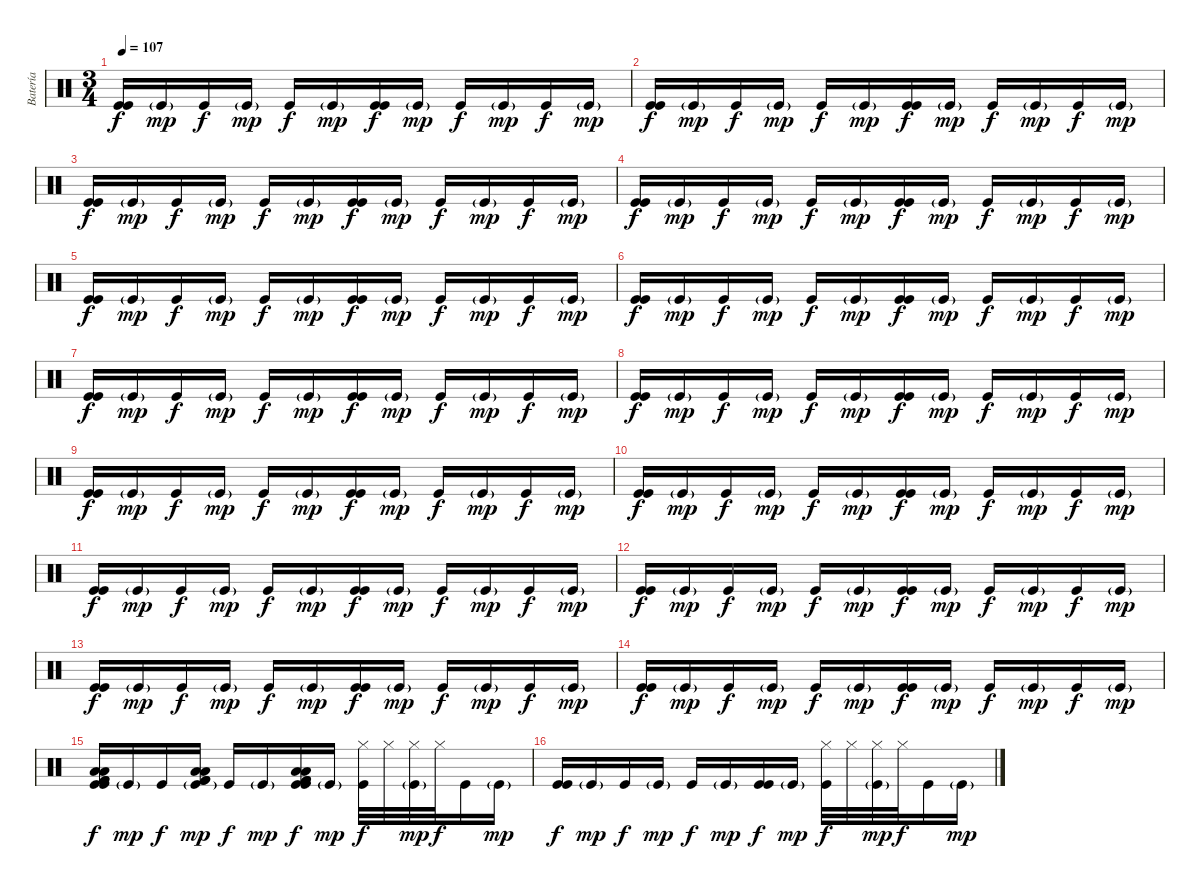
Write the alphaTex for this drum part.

\track ("Batería" "Batería") {instrument percussion}
\staff {score}
\articulation defaults
\ts (3 4)
\tempo 107
\clef neutral
\ks c
("Kick (hit)" "Kick (hit)").16{dy f} "Kick (hit)"{g}.16{dy mp} "Kick (hit)".16{dy f} "Kick (hit)"{g}.16{dy mp} "Kick (hit)".16{dy f} "Kick (hit)"{g}.16{dy mp} ("Kick (hit)" "Kick (hit)").16{dy f} "Kick (hit)"{g}.16{dy mp} "Kick (hit)".16{dy f} "Kick (hit)"{g}.16{dy mp} "Kick (hit)".16{dy f} "Kick (hit)"{g}.16{dy mp} |
("Kick (hit)" "Kick (hit)").16{dy f} "Kick (hit)"{g}.16{dy mp} "Kick (hit)".16{dy f} "Kick (hit)"{g}.16{dy mp} "Kick (hit)".16{dy f} "Kick (hit)"{g}.16{dy mp} ("Kick (hit)" "Kick (hit)").16{dy f} "Kick (hit)"{g}.16{dy mp} "Kick (hit)".16{dy f} "Kick (hit)"{g}.16{dy mp} "Kick (hit)".16{dy f} "Kick (hit)"{g}.16{dy mp} |
("Kick (hit)" "Kick (hit)").16{dy f} "Kick (hit)"{g}.16{dy mp} "Kick (hit)".16{dy f} "Kick (hit)"{g}.16{dy mp} "Kick (hit)".16{dy f} "Kick (hit)"{g}.16{dy mp} ("Kick (hit)" "Kick (hit)").16{dy f} "Kick (hit)"{g}.16{dy mp} "Kick (hit)".16{dy f} "Kick (hit)"{g}.16{dy mp} "Kick (hit)".16{dy f} "Kick (hit)"{g}.16{dy mp} |
("Kick (hit)" "Kick (hit)").16{dy f} "Kick (hit)"{g}.16{dy mp} "Kick (hit)".16{dy f} "Kick (hit)"{g}.16{dy mp} "Kick (hit)".16{dy f} "Kick (hit)"{g}.16{dy mp} ("Kick (hit)" "Kick (hit)").16{dy f} "Kick (hit)"{g}.16{dy mp} "Kick (hit)".16{dy f} "Kick (hit)"{g}.16{dy mp} "Kick (hit)".16{dy f} "Kick (hit)"{g}.16{dy mp} |
("Kick (hit)" "Kick (hit)").16{dy f} "Kick (hit)"{g}.16{dy mp} "Kick (hit)".16{dy f} "Kick (hit)"{g}.16{dy mp} "Kick (hit)".16{dy f} "Kick (hit)"{g}.16{dy mp} ("Kick (hit)" "Kick (hit)").16{dy f} "Kick (hit)"{g}.16{dy mp} "Kick (hit)".16{dy f} "Kick (hit)"{g}.16{dy mp} "Kick (hit)".16{dy f} "Kick (hit)"{g}.16{dy mp} |
("Kick (hit)" "Kick (hit)").16{dy f} "Kick (hit)"{g}.16{dy mp} "Kick (hit)".16{dy f} "Kick (hit)"{g}.16{dy mp} "Kick (hit)".16{dy f} "Kick (hit)"{g}.16{dy mp} ("Kick (hit)" "Kick (hit)").16{dy f} "Kick (hit)"{g}.16{dy mp} "Kick (hit)".16{dy f} "Kick (hit)"{g}.16{dy mp} "Kick (hit)".16{dy f} "Kick (hit)"{g}.16{dy mp} |
("Kick (hit)" "Kick (hit)").16{dy f} "Kick (hit)"{g}.16{dy mp} "Kick (hit)".16{dy f} "Kick (hit)"{g}.16{dy mp} "Kick (hit)".16{dy f} "Kick (hit)"{g}.16{dy mp} ("Kick (hit)" "Kick (hit)").16{dy f} "Kick (hit)"{g}.16{dy mp} "Kick (hit)".16{dy f} "Kick (hit)"{g}.16{dy mp} "Kick (hit)".16{dy f} "Kick (hit)"{g}.16{dy mp} |
("Kick (hit)" "Kick (hit)").16{dy f} "Kick (hit)"{g}.16{dy mp} "Kick (hit)".16{dy f} "Kick (hit)"{g}.16{dy mp} "Kick (hit)".16{dy f} "Kick (hit)"{g}.16{dy mp} ("Kick (hit)" "Kick (hit)").16{dy f} "Kick (hit)"{g}.16{dy mp} "Kick (hit)".16{dy f} "Kick (hit)"{g}.16{dy mp} "Kick (hit)".16{dy f} "Kick (hit)"{g}.16{dy mp} |
("Kick (hit)" "Kick (hit)").16{dy f} "Kick (hit)"{g}.16{dy mp} "Kick (hit)".16{dy f} "Kick (hit)"{g}.16{dy mp} "Kick (hit)".16{dy f} "Kick (hit)"{g}.16{dy mp} ("Kick (hit)" "Kick (hit)").16{dy f} "Kick (hit)"{g}.16{dy mp} "Kick (hit)".16{dy f} "Kick (hit)"{g}.16{dy mp} "Kick (hit)".16{dy f} "Kick (hit)"{g}.16{dy mp} |
("Kick (hit)" "Kick (hit)").16{dy f} "Kick (hit)"{g}.16{dy mp} "Kick (hit)".16{dy f} "Kick (hit)"{g}.16{dy mp} "Kick (hit)".16{dy f} "Kick (hit)"{g}.16{dy mp} ("Kick (hit)" "Kick (hit)").16{dy f} "Kick (hit)"{g}.16{dy mp} "Kick (hit)".16{dy f} "Kick (hit)"{g}.16{dy mp} "Kick (hit)".16{dy f} "Kick (hit)"{g}.16{dy mp} |
("Kick (hit)" "Kick (hit)").16{dy f} "Kick (hit)"{g}.16{dy mp} "Kick (hit)".16{dy f} "Kick (hit)"{g}.16{dy mp} "Kick (hit)".16{dy f} "Kick (hit)"{g}.16{dy mp} ("Kick (hit)" "Kick (hit)").16{dy f} "Kick (hit)"{g}.16{dy mp} "Kick (hit)".16{dy f} "Kick (hit)"{g}.16{dy mp} "Kick (hit)".16{dy f} "Kick (hit)"{g}.16{dy mp} |
("Kick (hit)" "Kick (hit)").16{dy f} "Kick (hit)"{g}.16{dy mp} "Kick (hit)".16{dy f} "Kick (hit)"{g}.16{dy mp} "Kick (hit)".16{dy f} "Kick (hit)"{g}.16{dy mp} ("Kick (hit)" "Kick (hit)").16{dy f} "Kick (hit)"{g}.16{dy mp} "Kick (hit)".16{dy f} "Kick (hit)"{g}.16{dy mp} "Kick (hit)".16{dy f} "Kick (hit)"{g}.16{dy mp} |
("Kick (hit)" "Kick (hit)").16{dy f} "Kick (hit)"{g}.16{dy mp} "Kick (hit)".16{dy f} "Kick (hit)"{g}.16{dy mp} "Kick (hit)".16{dy f} "Kick (hit)"{g}.16{dy mp} ("Kick (hit)" "Kick (hit)").16{dy f} "Kick (hit)"{g}.16{dy mp} "Kick (hit)".16{dy f} "Kick (hit)"{g}.16{dy mp} "Kick (hit)".16{dy f} "Kick (hit)"{g}.16{dy mp} |
("Kick (hit)" "Kick (hit)").16{dy f} "Kick (hit)"{g}.16{dy mp} "Kick (hit)".16{dy f} "Kick (hit)"{g}.16{dy mp} "Kick (hit)".16{dy f} "Kick (hit)"{g}.16{dy mp} ("Kick (hit)" "Kick (hit)").16{dy f} "Kick (hit)"{g}.16{dy mp} "Kick (hit)".16{dy f} "Kick (hit)"{g}.16{dy mp} "Kick (hit)".16{dy f} "Kick (hit)"{g}.16{dy mp} |
("Kick (hit)" "Kick (hit)" "Low Floor Tom (hit)" "Low Floor Tom (hit)" "Kick (hit) 2" "Kick (hit) 2").16{dy f} "Kick (hit)"{g}.16{dy mp} "Kick (hit)".16{dy f} ("Kick (hit)"{g} "Low Floor Tom (hit)" "Low Floor Tom (hit)" "Kick (hit) 2" "Kick (hit) 2").16{dy mp} "Kick (hit)".16{dy f} "Kick (hit)"{g}.16{dy mp} ("Kick (hit)" "Kick (hit)" "Low Floor Tom (hit)" "Low Floor Tom (hit)" "Kick (hit) 2" "Kick (hit) 2").16{dy f} "Kick (hit)"{g}.16{dy mp} ("Kick (hit)" "Hi-Hat (closed)").32{dy f} "Hi-Hat (closed)".32 ("Kick (hit)"{g} "Hi-Hat (closed)").32{dy mp} "Hi-Hat (closed)".32{dy f} "Kick (hit)".16 "Kick (hit)"{g}.16{dy mp} |
("Kick (hit)" "Kick (hit)").16{dy f} "Kick (hit)"{g}.16{dy mp} "Kick (hit)".16{dy f} "Kick (hit)"{g}.16{dy mp} "Kick (hit)".16{dy f} "Kick (hit)"{g}.16{dy mp} ("Kick (hit)" "Kick (hit)").16{dy f} "Kick (hit)"{g}.16{dy mp} ("Kick (hit)" "Hi-Hat (closed)").32{dy f} "Hi-Hat (closed)".32 ("Kick (hit)"{g} "Hi-Hat (closed)").32{dy mp} "Hi-Hat (closed)".32{dy f} "Kick (hit)".16 "Kick (hit)"{g}.16{dy mp}
